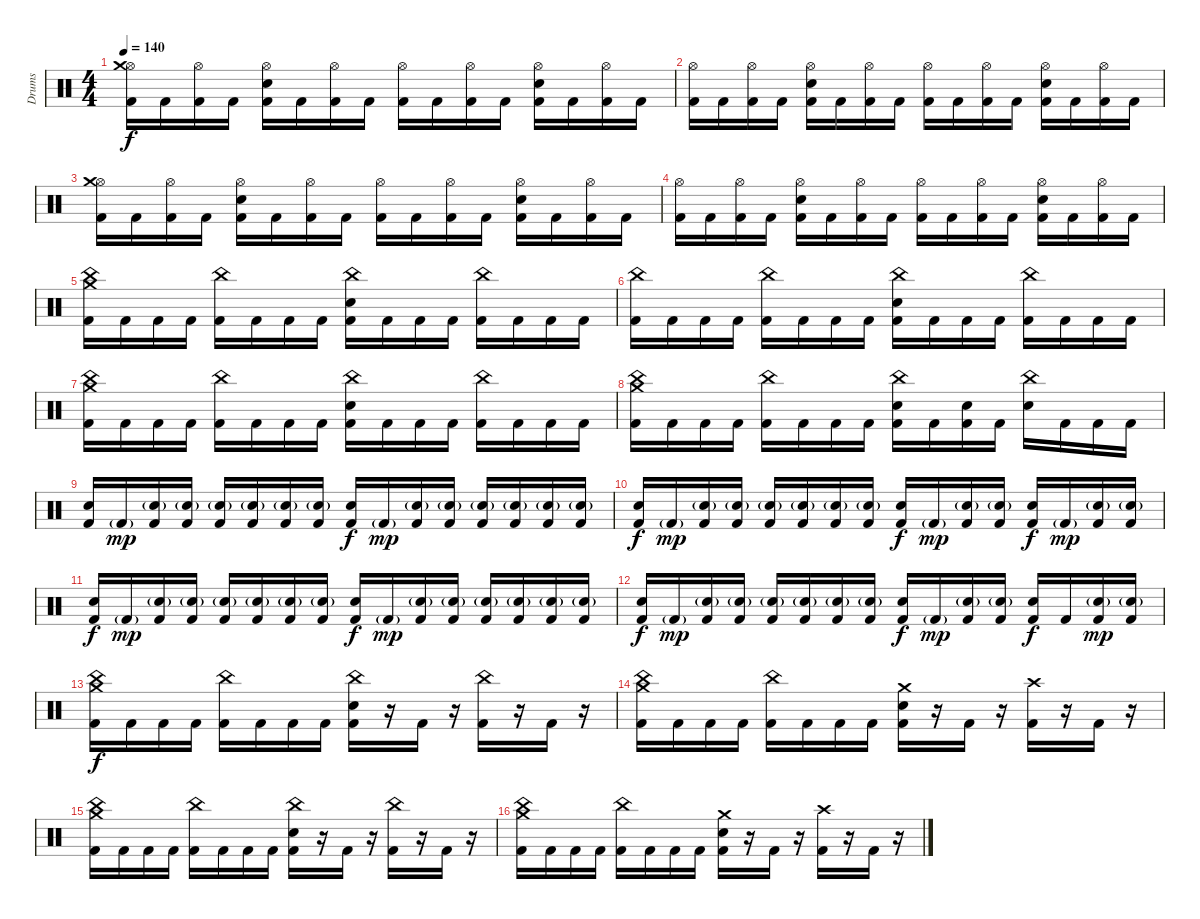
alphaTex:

\track ("Drums" "Drums") {instrument percussion}
\staff {score}
\articulation defaults
\ts (4 4)
\tempo 140
\clef neutral
\ks c
("Hi-Hat (open)" "Crash medium (hit)" "Kick (hit) 2").16{dy f} "Kick (hit) 2".16 ("Hi-Hat (open)" "Kick (hit) 2").16 "Kick (hit) 2".16 ("Hi-Hat (open)" "Electric Snare (hit)" "Kick (hit) 2").16 "Kick (hit) 2".16 ("Hi-Hat (open)" "Kick (hit) 2").16 "Kick (hit) 2".16 ("Hi-Hat (open)" "Kick (hit) 2").16 "Kick (hit) 2".16 ("Hi-Hat (open)" "Kick (hit) 2").16 "Kick (hit) 2".16 ("Hi-Hat (open)" "Electric Snare (hit)" "Kick (hit) 2").16 "Kick (hit) 2".16 ("Hi-Hat (open)" "Kick (hit) 2").16 "Kick (hit) 2".16 |
("Hi-Hat (open)" "Kick (hit) 2").16 "Kick (hit) 2".16 ("Hi-Hat (open)" "Kick (hit) 2").16 "Kick (hit) 2".16 ("Hi-Hat (open)" "Electric Snare (hit)" "Kick (hit) 2").16 "Kick (hit) 2".16 ("Hi-Hat (open)" "Kick (hit) 2").16 "Kick (hit) 2".16 ("Hi-Hat (open)" "Kick (hit) 2").16 "Kick (hit) 2".16 ("Hi-Hat (open)" "Kick (hit) 2").16 "Kick (hit) 2".16 ("Hi-Hat (open)" "Electric Snare (hit)" "Kick (hit) 2").16 "Kick (hit) 2".16 ("Hi-Hat (open)" "Kick (hit) 2").16 "Kick (hit) 2".16 |
("Hi-Hat (open)" "Crash medium (hit)" "Kick (hit) 2").16 "Kick (hit) 2".16 ("Hi-Hat (open)" "Kick (hit) 2").16 "Kick (hit) 2".16 ("Hi-Hat (open)" "Electric Snare (hit)" "Kick (hit) 2").16 "Kick (hit) 2".16 ("Hi-Hat (open)" "Kick (hit) 2").16 "Kick (hit) 2".16 ("Hi-Hat (open)" "Kick (hit) 2").16 "Kick (hit) 2".16 ("Hi-Hat (open)" "Kick (hit) 2").16 "Kick (hit) 2".16 ("Hi-Hat (open)" "Electric Snare (hit)" "Kick (hit) 2").16 "Kick (hit) 2".16 ("Hi-Hat (open)" "Kick (hit) 2").16 "Kick (hit) 2".16 |
("Hi-Hat (open)" "Kick (hit) 2").16 "Kick (hit) 2".16 ("Hi-Hat (open)" "Kick (hit) 2").16 "Kick (hit) 2".16 ("Hi-Hat (open)" "Electric Snare (hit)" "Kick (hit) 2").16 "Kick (hit) 2".16 ("Hi-Hat (open)" "Kick (hit) 2").16 "Kick (hit) 2".16 ("Hi-Hat (open)" "Kick (hit) 2").16 "Kick (hit) 2".16 ("Hi-Hat (open)" "Kick (hit) 2").16 "Kick (hit) 2".16 ("Hi-Hat (open)" "Electric Snare (hit)" "Kick (hit) 2").16 "Kick (hit) 2".16 ("Hi-Hat (open)" "Kick (hit) 2").16 "Kick (hit) 2".16 |
("China (hit)" "Crash medium (hit)" "Kick (hit) 2").16 "Kick (hit) 2".16 "Kick (hit) 2".16 "Kick (hit) 2".16 ("China (hit)" "Kick (hit) 2").16 "Kick (hit) 2".16 "Kick (hit) 2".16 "Kick (hit) 2".16 ("China (hit)" "Electric Snare (hit)" "Kick (hit) 2").16 "Kick (hit) 2".16 "Kick (hit) 2".16 "Kick (hit) 2".16 ("China (hit)" "Kick (hit) 2").16 "Kick (hit) 2".16 "Kick (hit) 2".16 "Kick (hit) 2".16 |
("China (hit)" "Kick (hit) 2").16 "Kick (hit) 2".16 "Kick (hit) 2".16 "Kick (hit) 2".16 ("China (hit)" "Kick (hit) 2").16 "Kick (hit) 2".16 "Kick (hit) 2".16 "Kick (hit) 2".16 ("China (hit)" "Electric Snare (hit)" "Kick (hit) 2").16 "Kick (hit) 2".16 "Kick (hit) 2".16 "Kick (hit) 2".16 ("China (hit)" "Kick (hit) 2").16 "Kick (hit) 2".16 "Kick (hit) 2".16 "Kick (hit) 2".16 |
("China (hit)" "Crash medium (hit)" "Kick (hit) 2").16 "Kick (hit) 2".16 "Kick (hit) 2".16 "Kick (hit) 2".16 ("China (hit)" "Kick (hit) 2").16 "Kick (hit) 2".16 "Kick (hit) 2".16 "Kick (hit) 2".16 ("China (hit)" "Electric Snare (hit)" "Kick (hit) 2").16 "Kick (hit) 2".16 "Kick (hit) 2".16 "Kick (hit) 2".16 ("China (hit)" "Kick (hit) 2").16 "Kick (hit) 2".16 "Kick (hit) 2".16 "Kick (hit) 2".16 |
("China (hit)" "Crash medium (hit)" "Kick (hit) 2").16 "Kick (hit) 2".16 "Kick (hit) 2".16 "Kick (hit) 2".16 ("China (hit)" "Kick (hit) 2").16 "Kick (hit) 2".16 "Kick (hit) 2".16 "Kick (hit) 2".16 ("China (hit)" "Electric Snare (hit)" "Kick (hit) 2").16 "Kick (hit) 2".16 ("Electric Snare (hit)" "Kick (hit) 2").16 "Kick (hit) 2".16 ("China (hit)" "Electric Snare (hit)").16 "Kick (hit) 2".16 "Kick (hit) 2".16 "Kick (hit) 2".16 |
("Electric Snare (hit)" "Kick (hit) 2").16 "Kick (hit) 2"{g}.16{dy mp} ("Electric Snare (hit)"{g} "Kick (hit) 2").16 ("Electric Snare (hit)"{g} "Kick (hit) 2").16 ("Electric Snare (hit)"{g} "Kick (hit) 2").16 ("Electric Snare (hit)"{g} "Kick (hit) 2").16 ("Electric Snare (hit)"{g} "Kick (hit) 2").16 ("Electric Snare (hit)"{g} "Kick (hit) 2").16 ("Electric Snare (hit)" "Kick (hit) 2").16{dy f} "Kick (hit) 2"{g}.16{dy mp} ("Electric Snare (hit)"{g} "Kick (hit) 2").16 ("Electric Snare (hit)"{g} "Kick (hit) 2").16 ("Electric Snare (hit)"{g} "Kick (hit) 2").16 ("Electric Snare (hit)"{g} "Kick (hit) 2").16 ("Electric Snare (hit)"{g} "Kick (hit) 2").16 ("Electric Snare (hit)"{g} "Kick (hit) 2").16 |
("Electric Snare (hit)" "Kick (hit) 2").16{dy f} "Kick (hit) 2"{g}.16{dy mp} ("Electric Snare (hit)"{g} "Kick (hit) 2").16 ("Electric Snare (hit)"{g} "Kick (hit) 2").16 ("Electric Snare (hit)"{g} "Kick (hit) 2").16 ("Electric Snare (hit)"{g} "Kick (hit) 2").16 ("Electric Snare (hit)"{g} "Kick (hit) 2").16 ("Electric Snare (hit)"{g} "Kick (hit) 2").16 ("Electric Snare (hit)" "Kick (hit) 2").16{dy f} "Kick (hit) 2"{g}.16{dy mp} ("Electric Snare (hit)"{g} "Kick (hit) 2").16 ("Electric Snare (hit)"{g} "Kick (hit) 2").16 ("Electric Snare (hit)" "Kick (hit) 2").16{dy f} "Kick (hit) 2"{g}.16{dy mp} ("Electric Snare (hit)"{g} "Kick (hit) 2").16 ("Electric Snare (hit)"{g} "Kick (hit) 2").16 |
("Electric Snare (hit)" "Kick (hit) 2").16{dy f} "Kick (hit) 2"{g}.16{dy mp} ("Electric Snare (hit)"{g} "Kick (hit) 2").16 ("Electric Snare (hit)"{g} "Kick (hit) 2").16 ("Electric Snare (hit)"{g} "Kick (hit) 2").16 ("Electric Snare (hit)"{g} "Kick (hit) 2").16 ("Electric Snare (hit)"{g} "Kick (hit) 2").16 ("Electric Snare (hit)"{g} "Kick (hit) 2").16 ("Electric Snare (hit)" "Kick (hit) 2").16{dy f} "Kick (hit) 2"{g}.16{dy mp} ("Electric Snare (hit)"{g} "Kick (hit) 2").16 ("Electric Snare (hit)"{g} "Kick (hit) 2").16 ("Electric Snare (hit)"{g} "Kick (hit) 2").16 ("Electric Snare (hit)"{g} "Kick (hit) 2").16 ("Electric Snare (hit)"{g} "Kick (hit) 2").16 ("Electric Snare (hit)"{g} "Kick (hit) 2").16 |
("Electric Snare (hit)" "Kick (hit) 2").16{dy f} "Kick (hit) 2"{g}.16{dy mp} ("Electric Snare (hit)"{g} "Kick (hit) 2").16 ("Electric Snare (hit)"{g} "Kick (hit) 2").16 ("Electric Snare (hit)"{g} "Kick (hit) 2").16 ("Electric Snare (hit)"{g} "Kick (hit) 2").16 ("Electric Snare (hit)"{g} "Kick (hit) 2").16 ("Electric Snare (hit)"{g} "Kick (hit) 2").16 ("Electric Snare (hit)" "Kick (hit) 2").16{dy f} "Kick (hit) 2"{g}.16{dy mp} ("Electric Snare (hit)"{g} "Kick (hit) 2").16 ("Electric Snare (hit)"{g} "Kick (hit) 2").16 ("Electric Snare (hit)" "Kick (hit) 2").16{dy f} "Kick (hit) 2".16 ("Electric Snare (hit)"{g} "Kick (hit) 2").16{dy mp} ("Electric Snare (hit)"{g} "Kick (hit) 2").16 |
("China (hit)" "Crash medium (hit)" "Kick (hit) 2").16{dy f} "Kick (hit) 2".16 "Kick (hit) 2".16 "Kick (hit) 2".16 ("China (hit)" "Kick (hit) 2").16 "Kick (hit) 2".16 "Kick (hit) 2".16 "Kick (hit) 2".16 ("China (hit)" "Electric Snare (hit)" "Kick (hit) 2").16 r.16 "Kick (hit) 2".16 r.16 ("China (hit)" "Kick (hit) 2").16 r.16 "Kick (hit) 2".16 r.16 |
("China (hit)" "Crash medium (hit)" "Kick (hit) 2").16 "Kick (hit) 2".16 "Kick (hit) 2".16 "Kick (hit) 2".16 ("China (hit)" "Kick (hit) 2").16 "Kick (hit) 2".16 "Kick (hit) 2".16 "Kick (hit) 2".16 ("Crash medium (hit)" "Electric Snare (hit)" "Kick (hit) 2").16 r.16 "Kick (hit) 2".16 r.16 ("Crash high (hit)" "Kick (hit) 2").16 r.16 "Kick (hit) 2".16 r.16 |
("China (hit)" "Crash medium (hit)" "Kick (hit) 2").16 "Kick (hit) 2".16 "Kick (hit) 2".16 "Kick (hit) 2".16 ("China (hit)" "Kick (hit) 2").16 "Kick (hit) 2".16 "Kick (hit) 2".16 "Kick (hit) 2".16 ("China (hit)" "Electric Snare (hit)" "Kick (hit) 2").16 r.16 "Kick (hit) 2".16 r.16 ("China (hit)" "Kick (hit) 2").16 r.16 "Kick (hit) 2".16 r.16 |
("China (hit)" "Crash medium (hit)" "Kick (hit) 2").16 "Kick (hit) 2".16 "Kick (hit) 2".16 "Kick (hit) 2".16 ("China (hit)" "Kick (hit) 2").16 "Kick (hit) 2".16 "Kick (hit) 2".16 "Kick (hit) 2".16 ("Crash medium (hit)" "Electric Snare (hit)" "Kick (hit) 2").16 r.16 "Kick (hit) 2".16 r.16 ("Crash high (hit)" "Kick (hit) 2").16 r.16 "Kick (hit) 2".16 r.16
